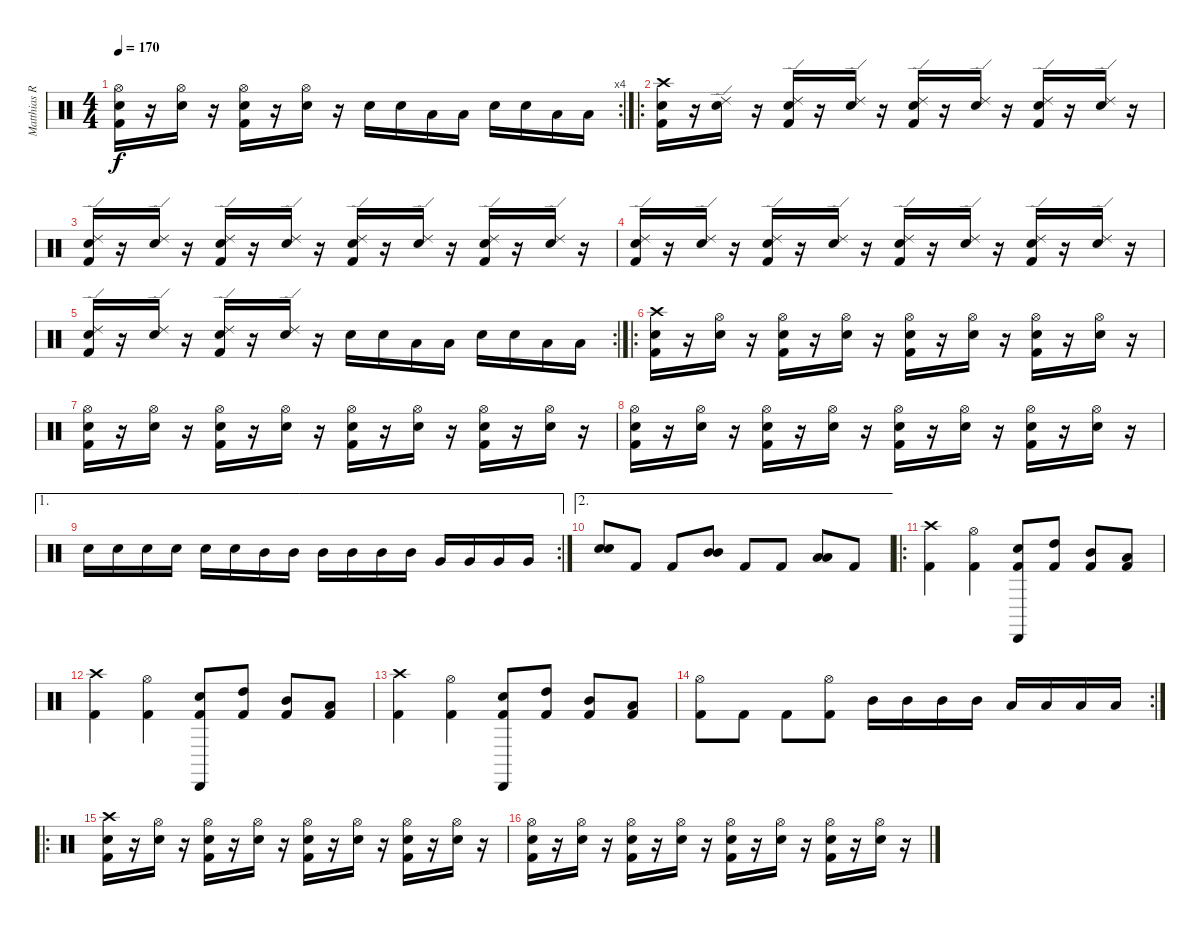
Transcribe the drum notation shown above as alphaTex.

\track ("Matthias Rodig" "Matthias R") {instrument percussion}
\staff {score}
\articulation defaults
\rc 4
\ts (4 4)
\tempo 170
\clef neutral
\ks c
("Kick (hit) 2" "Electric Snare (hit)" "Hi-Hat (open)").16{dy f} r.16 ("Electric Snare (hit)" "Hi-Hat (open)").16 r.16 ("Kick (hit) 2" "Electric Snare (hit)" "Hi-Hat (open)").16 r.16 ("Electric Snare (hit)" "Hi-Hat (open)").16 r.16 "Electric Snare (hit)".16 "Electric Snare (hit)".16 "Low Tom (hit)".16 "Low Tom (hit)".16 "Electric Snare (hit)".16 "Electric Snare (hit)".16 "Low Tom (hit)".16 "Low Tom (hit)".16 |
\ro
("Kick (hit) 2" "Electric Snare (hit)" "Crash high (hit)").16 r.16 ("Electric Snare (hit)" "Ride (edge) 2").16 r.16 ("Kick (hit) 2" "Electric Snare (hit)" "Ride (edge) 2").16 r.16 ("Electric Snare (hit)" "Ride (edge) 2").16 r.16 ("Kick (hit) 2" "Electric Snare (hit)" "Ride (edge) 2").16 r.16 ("Electric Snare (hit)" "Ride (edge) 2").16 r.16 ("Kick (hit) 2" "Electric Snare (hit)" "Ride (edge) 2").16 r.16 ("Electric Snare (hit)" "Ride (edge) 2").16 r.16 |
("Kick (hit) 2" "Electric Snare (hit)" "Ride (edge) 2").16 r.16 ("Electric Snare (hit)" "Ride (edge) 2").16 r.16 ("Kick (hit) 2" "Electric Snare (hit)" "Ride (edge) 2").16 r.16 ("Electric Snare (hit)" "Ride (edge) 2").16 r.16 ("Kick (hit) 2" "Electric Snare (hit)" "Ride (edge) 2").16 r.16 ("Electric Snare (hit)" "Ride (edge) 2").16 r.16 ("Kick (hit) 2" "Electric Snare (hit)" "Ride (edge) 2").16 r.16 ("Electric Snare (hit)" "Ride (edge) 2").16 r.16 |
("Kick (hit) 2" "Electric Snare (hit)" "Ride (edge) 2").16 r.16 ("Electric Snare (hit)" "Ride (edge) 2").16 r.16 ("Kick (hit) 2" "Electric Snare (hit)" "Ride (edge) 2").16 r.16 ("Electric Snare (hit)" "Ride (edge) 2").16 r.16 ("Kick (hit) 2" "Electric Snare (hit)" "Ride (edge) 2").16 r.16 ("Electric Snare (hit)" "Ride (edge) 2").16 r.16 ("Kick (hit) 2" "Electric Snare (hit)" "Ride (edge) 2").16 r.16 ("Electric Snare (hit)" "Ride (edge) 2").16 r.16 |
\rc 2
("Kick (hit) 2" "Electric Snare (hit)" "Ride (edge) 2").16 r.16 ("Electric Snare (hit)" "Ride (edge) 2").16 r.16 ("Kick (hit) 2" "Electric Snare (hit)" "Ride (edge) 2").16 r.16 ("Electric Snare (hit)" "Ride (edge) 2").16 r.16 "Electric Snare (hit)".16 "Electric Snare (hit)".16 "Low Tom (hit)".16 "Low Tom (hit)".16 "Electric Snare (hit)".16 "Electric Snare (hit)".16 "Low Tom (hit)".16 "Low Tom (hit)".16 |
\ro
("Kick (hit) 2" "Electric Snare (hit)" "Crash high (hit)").16 r.16 ("Electric Snare (hit)" "Hi-Hat (open)").16 r.16 ("Kick (hit) 2" "Electric Snare (hit)" "Hi-Hat (open)").16 r.16 ("Electric Snare (hit)" "Hi-Hat (open)").16 r.16 ("Kick (hit) 2" "Electric Snare (hit)" "Hi-Hat (open)").16 r.16 ("Electric Snare (hit)" "Hi-Hat (open)").16 r.16 ("Kick (hit) 2" "Electric Snare (hit)" "Hi-Hat (open)").16 r.16 ("Electric Snare (hit)" "Hi-Hat (open)").16 r.16 |
("Kick (hit) 2" "Electric Snare (hit)" "Hi-Hat (open)").16 r.16 ("Electric Snare (hit)" "Hi-Hat (open)").16 r.16 ("Kick (hit) 2" "Electric Snare (hit)" "Hi-Hat (open)").16 r.16 ("Electric Snare (hit)" "Hi-Hat (open)").16 r.16 ("Kick (hit) 2" "Electric Snare (hit)" "Hi-Hat (open)").16 r.16 ("Electric Snare (hit)" "Hi-Hat (open)").16 r.16 ("Kick (hit) 2" "Electric Snare (hit)" "Hi-Hat (open)").16 r.16 ("Electric Snare (hit)" "Hi-Hat (open)").16 r.16 |
("Kick (hit) 2" "Electric Snare (hit)" "Hi-Hat (open)").16 r.16 ("Electric Snare (hit)" "Hi-Hat (open)").16 r.16 ("Kick (hit) 2" "Electric Snare (hit)" "Hi-Hat (open)").16 r.16 ("Electric Snare (hit)" "Hi-Hat (open)").16 r.16 ("Kick (hit) 2" "Electric Snare (hit)" "Hi-Hat (open)").16 r.16 ("Electric Snare (hit)" "Hi-Hat (open)").16 r.16 ("Kick (hit) 2" "Electric Snare (hit)" "Hi-Hat (open)").16 r.16 ("Electric Snare (hit)" "Hi-Hat (open)").16 r.16 |
\ae 1
\rc 2 "Electric Snare (hit)".16 "Electric Snare (hit)".16 "Electric Snare (hit)".16 "Electric Snare (hit)".16 "Electric Snare (hit)".16 "Electric Snare (hit)".16 "Mid Tom (hit)".16 "Mid Tom (hit)".16 "Mid Tom (hit)".16 "Mid Tom (hit)".16 "Mid Tom (hit)".16 "Mid Tom (hit)".16 "Very Low Tom (hit)".16 "Very Low Tom (hit)".16 "Very Low Tom (hit)".16 "Very Low Tom (hit)".16
|
\ae 2
("Electric Snare (hit)" "Electric Snare (hit)").8{bd 480} "Kick (hit) 2".8 "Kick (hit) 2".8 ("Mid Tom (hit)" "Mid Tom (hit)").8{bd 480} "Kick (hit) 2".8 "Kick (hit) 2".8 ("Low Tom (hit)" "Low Tom (hit)").8{bd 480} "Kick (hit) 2".8 |
\ro
("Kick (hit) 2" "Crash high (hit)").4 ("Kick (hit) 2" "Hi-Hat (open)").4 ("Kick (hit) 2" "Electric Snare (hit)" "Cabasa (hit)").8 ("Kick (hit) 2" "High Tom (hit)").8 ("Kick (hit) 2" "Mid Tom (hit)").8 ("Kick (hit) 2" "Low Tom (hit)").8 |
("Kick (hit) 2" "Crash high (hit)").4 ("Kick (hit) 2" "Hi-Hat (open)").4 ("Kick (hit) 2" "Electric Snare (hit)" "Cabasa (hit)").8 ("Kick (hit) 2" "High Tom (hit)").8 ("Kick (hit) 2" "Mid Tom (hit)").8 ("Kick (hit) 2" "Low Tom (hit)").8 |
("Kick (hit) 2" "Crash high (hit)").4 ("Kick (hit) 2" "Hi-Hat (open)").4 ("Kick (hit) 2" "Electric Snare (hit)" "Cabasa (hit)").8 ("Kick (hit) 2" "High Tom (hit)").8 ("Kick (hit) 2" "Mid Tom (hit)").8 ("Kick (hit) 2" "Low Tom (hit)").8 |
\rc 2
("Kick (hit) 2" "Hi-Hat (open)").8 "Kick (hit) 2".8 "Kick (hit) 2".8 ("Kick (hit) 2" "Hi-Hat (open)").8 "Mid Tom (hit)".16 "Mid Tom (hit)".16 "Mid Tom (hit)".16 "Mid Tom (hit)".16 "Low Tom (hit)".16 "Low Tom (hit)".16 "Low Tom (hit)".16 "Low Tom (hit)".16 |
\ro
("Kick (hit) 2" "Electric Snare (hit)" "Crash high (hit)").16 r.16 ("Electric Snare (hit)" "Hi-Hat (open)").16 r.16 ("Kick (hit) 2" "Electric Snare (hit)" "Hi-Hat (open)").16 r.16 ("Electric Snare (hit)" "Hi-Hat (open)").16 r.16 ("Kick (hit) 2" "Electric Snare (hit)" "Hi-Hat (open)").16 r.16 ("Electric Snare (hit)" "Hi-Hat (open)").16 r.16 ("Kick (hit) 2" "Electric Snare (hit)" "Hi-Hat (open)").16 r.16 ("Electric Snare (hit)" "Hi-Hat (open)").16 r.16 |
("Kick (hit) 2" "Electric Snare (hit)" "Hi-Hat (open)").16 r.16 ("Electric Snare (hit)" "Hi-Hat (open)").16 r.16 ("Kick (hit) 2" "Electric Snare (hit)" "Hi-Hat (open)").16 r.16 ("Electric Snare (hit)" "Hi-Hat (open)").16 r.16 ("Kick (hit) 2" "Electric Snare (hit)" "Hi-Hat (open)").16 r.16 ("Electric Snare (hit)" "Hi-Hat (open)").16 r.16 ("Kick (hit) 2" "Electric Snare (hit)" "Hi-Hat (open)").16 r.16 ("Electric Snare (hit)" "Hi-Hat (open)").16 r.16
